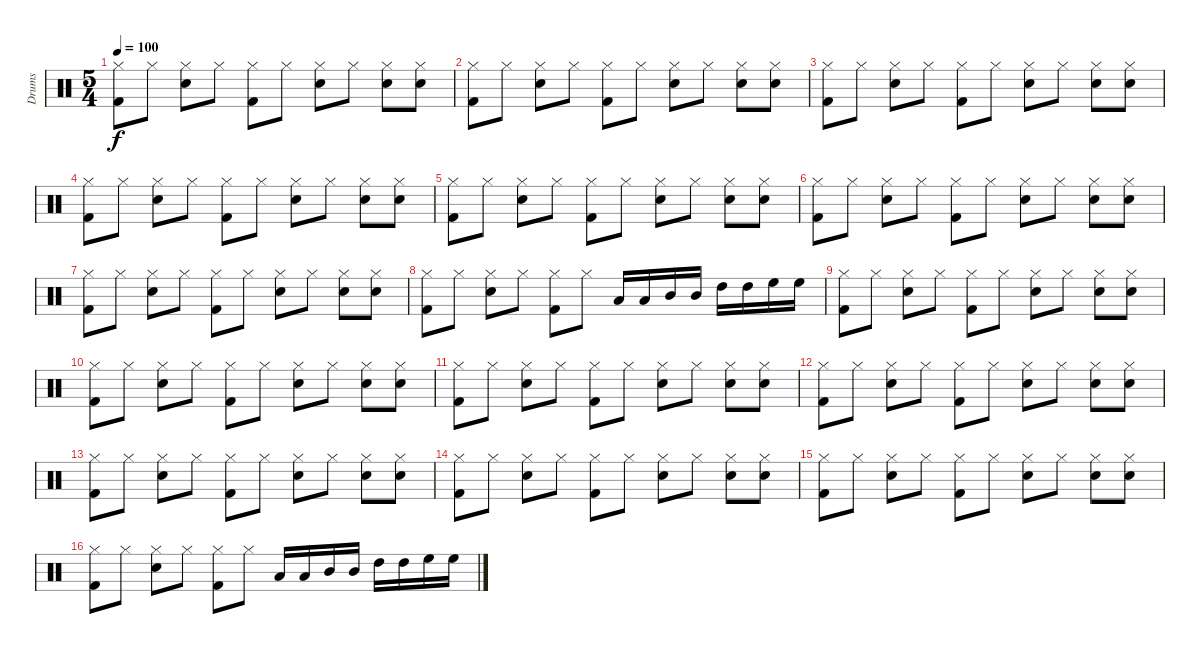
\track ("Drums" "Drums") {instrument percussion}
\staff {score}
\articulation defaults
\ts (5 4)
\tempo 100
\clef neutral
\ks c
("Kick (hit) 2" "Hi-Hat (closed)").8{dy f} "Hi-Hat (closed)".8 ("Snare (hit) 2" "Hi-Hat (closed)").8 "Hi-Hat (closed)".8 ("Kick (hit) 2" "Hi-Hat (closed)").8 "Hi-Hat (closed)".8 ("Snare (hit) 2" "Hi-Hat (closed)").8 "Hi-Hat (closed)".8 ("Snare (hit) 2" "Hi-Hat (closed)").8 ("Snare (hit) 2" "Hi-Hat (closed)").8 |
("Kick (hit) 2" "Hi-Hat (closed)").8 "Hi-Hat (closed)".8 ("Snare (hit) 2" "Hi-Hat (closed)").8 "Hi-Hat (closed)".8 ("Kick (hit) 2" "Hi-Hat (closed)").8 "Hi-Hat (closed)".8 ("Snare (hit) 2" "Hi-Hat (closed)").8 "Hi-Hat (closed)".8 ("Snare (hit) 2" "Hi-Hat (closed)").8 ("Snare (hit) 2" "Hi-Hat (closed)").8 |
("Kick (hit) 2" "Hi-Hat (closed)").8 "Hi-Hat (closed)".8 ("Snare (hit) 2" "Hi-Hat (closed)").8 "Hi-Hat (closed)".8 ("Kick (hit) 2" "Hi-Hat (closed)").8 "Hi-Hat (closed)".8 ("Snare (hit) 2" "Hi-Hat (closed)").8 "Hi-Hat (closed)".8 ("Snare (hit) 2" "Hi-Hat (closed)").8 ("Snare (hit) 2" "Hi-Hat (closed)").8 |
("Kick (hit) 2" "Hi-Hat (closed)").8 "Hi-Hat (closed)".8 ("Snare (hit) 2" "Hi-Hat (closed)").8 "Hi-Hat (closed)".8 ("Kick (hit) 2" "Hi-Hat (closed)").8 "Hi-Hat (closed)".8 ("Snare (hit) 2" "Hi-Hat (closed)").8 "Hi-Hat (closed)".8 ("Snare (hit) 2" "Hi-Hat (closed)").8 ("Snare (hit) 2" "Hi-Hat (closed)").8 |
("Kick (hit) 2" "Hi-Hat (closed)").8 "Hi-Hat (closed)".8 ("Snare (hit) 2" "Hi-Hat (closed)").8 "Hi-Hat (closed)".8 ("Kick (hit) 2" "Hi-Hat (closed)").8 "Hi-Hat (closed)".8 ("Snare (hit) 2" "Hi-Hat (closed)").8 "Hi-Hat (closed)".8 ("Snare (hit) 2" "Hi-Hat (closed)").8 ("Snare (hit) 2" "Hi-Hat (closed)").8 |
("Kick (hit) 2" "Hi-Hat (closed)").8 "Hi-Hat (closed)".8 ("Snare (hit) 2" "Hi-Hat (closed)").8 "Hi-Hat (closed)".8 ("Kick (hit) 2" "Hi-Hat (closed)").8 "Hi-Hat (closed)".8 ("Snare (hit) 2" "Hi-Hat (closed)").8 "Hi-Hat (closed)".8 ("Snare (hit) 2" "Hi-Hat (closed)").8 ("Snare (hit) 2" "Hi-Hat (closed)").8 |
("Kick (hit) 2" "Hi-Hat (closed)").8 "Hi-Hat (closed)".8 ("Snare (hit) 2" "Hi-Hat (closed)").8 "Hi-Hat (closed)".8 ("Kick (hit) 2" "Hi-Hat (closed)").8 "Hi-Hat (closed)".8 ("Snare (hit) 2" "Hi-Hat (closed)").8 "Hi-Hat (closed)".8 ("Snare (hit) 2" "Hi-Hat (closed)").8 ("Snare (hit) 2" "Hi-Hat (closed)").8 |
("Kick (hit) 2" "Hi-Hat (closed)").8 "Hi-Hat (closed)".8 ("Snare (hit) 2" "Hi-Hat (closed)").8 "Hi-Hat (closed)".8 ("Kick (hit) 2" "Hi-Hat (closed)").8 "Hi-Hat (closed)".8 "Low Tom (hit)".16 "Low Tom (hit)".16 "Mid Tom (hit)".16 "Mid Tom (hit)".16 "High Tom (hit)".16 "High Tom (hit)".16 "High Floor Tom (hit)".16 "High Floor Tom (hit)".16 |
("Kick (hit) 2" "Hi-Hat (closed)").8 "Hi-Hat (closed)".8 ("Snare (hit) 2" "Hi-Hat (closed)").8 "Hi-Hat (closed)".8 ("Kick (hit) 2" "Hi-Hat (closed)").8 "Hi-Hat (closed)".8 ("Snare (hit) 2" "Hi-Hat (closed)").8 "Hi-Hat (closed)".8 ("Snare (hit) 2" "Hi-Hat (closed)").8 ("Snare (hit) 2" "Hi-Hat (closed)").8 |
("Kick (hit) 2" "Hi-Hat (closed)").8 "Hi-Hat (closed)".8 ("Snare (hit) 2" "Hi-Hat (closed)").8 "Hi-Hat (closed)".8 ("Kick (hit) 2" "Hi-Hat (closed)").8 "Hi-Hat (closed)".8 ("Snare (hit) 2" "Hi-Hat (closed)").8 "Hi-Hat (closed)".8 ("Snare (hit) 2" "Hi-Hat (closed)").8 ("Snare (hit) 2" "Hi-Hat (closed)").8 |
("Kick (hit) 2" "Hi-Hat (closed)").8 "Hi-Hat (closed)".8 ("Snare (hit) 2" "Hi-Hat (closed)").8 "Hi-Hat (closed)".8 ("Kick (hit) 2" "Hi-Hat (closed)").8 "Hi-Hat (closed)".8 ("Snare (hit) 2" "Hi-Hat (closed)").8 "Hi-Hat (closed)".8 ("Snare (hit) 2" "Hi-Hat (closed)").8 ("Snare (hit) 2" "Hi-Hat (closed)").8 |
("Kick (hit) 2" "Hi-Hat (closed)").8 "Hi-Hat (closed)".8 ("Snare (hit) 2" "Hi-Hat (closed)").8 "Hi-Hat (closed)".8 ("Kick (hit) 2" "Hi-Hat (closed)").8 "Hi-Hat (closed)".8 ("Snare (hit) 2" "Hi-Hat (closed)").8 "Hi-Hat (closed)".8 ("Snare (hit) 2" "Hi-Hat (closed)").8 ("Snare (hit) 2" "Hi-Hat (closed)").8 |
("Kick (hit) 2" "Hi-Hat (closed)").8 "Hi-Hat (closed)".8 ("Snare (hit) 2" "Hi-Hat (closed)").8 "Hi-Hat (closed)".8 ("Kick (hit) 2" "Hi-Hat (closed)").8 "Hi-Hat (closed)".8 ("Snare (hit) 2" "Hi-Hat (closed)").8 "Hi-Hat (closed)".8 ("Snare (hit) 2" "Hi-Hat (closed)").8 ("Snare (hit) 2" "Hi-Hat (closed)").8 |
("Kick (hit) 2" "Hi-Hat (closed)").8 "Hi-Hat (closed)".8 ("Snare (hit) 2" "Hi-Hat (closed)").8 "Hi-Hat (closed)".8 ("Kick (hit) 2" "Hi-Hat (closed)").8 "Hi-Hat (closed)".8 ("Snare (hit) 2" "Hi-Hat (closed)").8 "Hi-Hat (closed)".8 ("Snare (hit) 2" "Hi-Hat (closed)").8 ("Snare (hit) 2" "Hi-Hat (closed)").8 |
("Kick (hit) 2" "Hi-Hat (closed)").8 "Hi-Hat (closed)".8 ("Snare (hit) 2" "Hi-Hat (closed)").8 "Hi-Hat (closed)".8 ("Kick (hit) 2" "Hi-Hat (closed)").8 "Hi-Hat (closed)".8 ("Snare (hit) 2" "Hi-Hat (closed)").8 "Hi-Hat (closed)".8 ("Snare (hit) 2" "Hi-Hat (closed)").8 ("Snare (hit) 2" "Hi-Hat (closed)").8 |
("Kick (hit) 2" "Hi-Hat (closed)").8 "Hi-Hat (closed)".8 ("Snare (hit) 2" "Hi-Hat (closed)").8 "Hi-Hat (closed)".8 ("Kick (hit) 2" "Hi-Hat (closed)").8 "Hi-Hat (closed)".8 "Low Tom (hit)".16 "Low Tom (hit)".16 "Mid Tom (hit)".16 "Mid Tom (hit)".16 "High Tom (hit)".16 "High Tom (hit)".16 "High Floor Tom (hit)".16 "High Floor Tom (hit)".16
